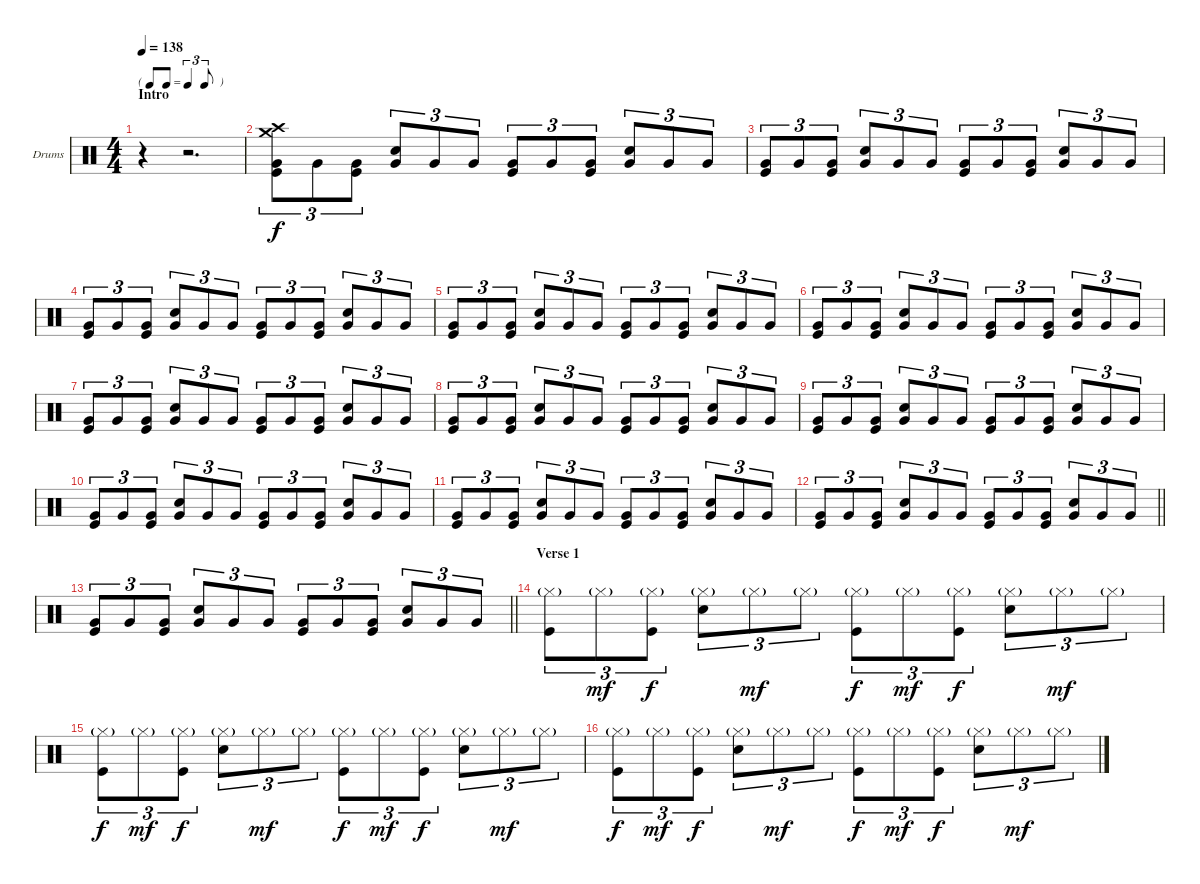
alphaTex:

\bracketExtendMode groupsimilarinstruments
\firstSystemTrackNameOrientation horizontal
\otherSystemsTrackNameOrientation horizontal
\track ("Drumkit" "Drums") {instrument percussion}
\staff {score}
\articulation defaults
\ts (4 4)
\beaming (8 2 2 2 2)
\tf triplet8th
\section ("" "Intro")
\tempo 138
\clef neutral
\ks c
r.4{dy f} r.2{d} |
("Crash medium (hit)" "Crash high (hit)" "Kick (hit)" "Very Low Tom (hit)").8{tu (3 2)} "Very Low Tom (hit)".8{tu (3 2)} ("Kick (hit)" "Very Low Tom (hit)").8{tu (3 2)} ("Snare (hit) 2" "Very Low Tom (hit)").8{tu (3 2)} "Very Low Tom (hit)".8{tu (3 2)} "Very Low Tom (hit)".8{tu (3 2)} ("Kick (hit)" "Very Low Tom (hit)").8{tu (3 2)} "Very Low Tom (hit)".8{tu (3 2)} ("Kick (hit)" "Very Low Tom (hit)").8{tu (3 2)} ("Snare (hit) 2" "Very Low Tom (hit)").8{tu (3 2)} "Very Low Tom (hit)".8{tu (3 2)} "Very Low Tom (hit)".8{tu (3 2)} |
("Kick (hit)" "Very Low Tom (hit)").8{tu (3 2)} "Very Low Tom (hit)".8{tu (3 2)} ("Kick (hit)" "Very Low Tom (hit)").8{tu (3 2)} ("Snare (hit) 2" "Very Low Tom (hit)").8{tu (3 2)} "Very Low Tom (hit)".8{tu (3 2)} "Very Low Tom (hit)".8{tu (3 2)} ("Kick (hit)" "Very Low Tom (hit)").8{tu (3 2)} "Very Low Tom (hit)".8{tu (3 2)} ("Kick (hit)" "Very Low Tom (hit)").8{tu (3 2)} ("Snare (hit) 2" "Very Low Tom (hit)").8{tu (3 2)} "Very Low Tom (hit)".8{tu (3 2)} "Very Low Tom (hit)".8{tu (3 2)} |
("Kick (hit)" "Very Low Tom (hit)").8{tu (3 2)} "Very Low Tom (hit)".8{tu (3 2)} ("Kick (hit)" "Very Low Tom (hit)").8{tu (3 2)} ("Snare (hit) 2" "Very Low Tom (hit)").8{tu (3 2)} "Very Low Tom (hit)".8{tu (3 2)} "Very Low Tom (hit)".8{tu (3 2)} ("Kick (hit)" "Very Low Tom (hit)").8{tu (3 2)} "Very Low Tom (hit)".8{tu (3 2)} ("Kick (hit)" "Very Low Tom (hit)").8{tu (3 2)} ("Snare (hit) 2" "Very Low Tom (hit)").8{tu (3 2)} "Very Low Tom (hit)".8{tu (3 2)} "Very Low Tom (hit)".8{tu (3 2)} |
("Kick (hit)" "Very Low Tom (hit)").8{tu (3 2)} "Very Low Tom (hit)".8{tu (3 2)} ("Kick (hit)" "Very Low Tom (hit)").8{tu (3 2)} ("Snare (hit) 2" "Very Low Tom (hit)").8{tu (3 2)} "Very Low Tom (hit)".8{tu (3 2)} "Very Low Tom (hit)".8{tu (3 2)} ("Kick (hit)" "Very Low Tom (hit)").8{tu (3 2)} "Very Low Tom (hit)".8{tu (3 2)} ("Kick (hit)" "Very Low Tom (hit)").8{tu (3 2)} ("Snare (hit) 2" "Very Low Tom (hit)").8{tu (3 2)} "Very Low Tom (hit)".8{tu (3 2)} "Very Low Tom (hit)".8{tu (3 2)} |
("Kick (hit)" "Very Low Tom (hit)").8{tu (3 2)} "Very Low Tom (hit)".8{tu (3 2)} ("Kick (hit)" "Very Low Tom (hit)").8{tu (3 2)} ("Snare (hit) 2" "Very Low Tom (hit)").8{tu (3 2)} "Very Low Tom (hit)".8{tu (3 2)} "Very Low Tom (hit)".8{tu (3 2)} ("Kick (hit)" "Very Low Tom (hit)").8{tu (3 2)} "Very Low Tom (hit)".8{tu (3 2)} ("Kick (hit)" "Very Low Tom (hit)").8{tu (3 2)} ("Snare (hit) 2" "Very Low Tom (hit)").8{tu (3 2)} "Very Low Tom (hit)".8{tu (3 2)} "Very Low Tom (hit)".8{tu (3 2)} |
("Kick (hit)" "Very Low Tom (hit)").8{tu (3 2)} "Very Low Tom (hit)".8{tu (3 2)} ("Kick (hit)" "Very Low Tom (hit)").8{tu (3 2)} ("Snare (hit) 2" "Very Low Tom (hit)").8{tu (3 2)} "Very Low Tom (hit)".8{tu (3 2)} "Very Low Tom (hit)".8{tu (3 2)} ("Kick (hit)" "Very Low Tom (hit)").8{tu (3 2)} "Very Low Tom (hit)".8{tu (3 2)} ("Kick (hit)" "Very Low Tom (hit)").8{tu (3 2)} ("Snare (hit) 2" "Very Low Tom (hit)").8{tu (3 2)} "Very Low Tom (hit)".8{tu (3 2)} "Very Low Tom (hit)".8{tu (3 2)} |
("Kick (hit)" "Very Low Tom (hit)").8{tu (3 2)} "Very Low Tom (hit)".8{tu (3 2)} ("Kick (hit)" "Very Low Tom (hit)").8{tu (3 2)} ("Snare (hit) 2" "Very Low Tom (hit)").8{tu (3 2)} "Very Low Tom (hit)".8{tu (3 2)} "Very Low Tom (hit)".8{tu (3 2)} ("Kick (hit)" "Very Low Tom (hit)").8{tu (3 2)} "Very Low Tom (hit)".8{tu (3 2)} ("Kick (hit)" "Very Low Tom (hit)").8{tu (3 2)} ("Snare (hit) 2" "Very Low Tom (hit)").8{tu (3 2)} "Very Low Tom (hit)".8{tu (3 2)} "Very Low Tom (hit)".8{tu (3 2)} |
("Kick (hit)" "Very Low Tom (hit)").8{tu (3 2)} "Very Low Tom (hit)".8{tu (3 2)} ("Kick (hit)" "Very Low Tom (hit)").8{tu (3 2)} ("Snare (hit) 2" "Very Low Tom (hit)").8{tu (3 2)} "Very Low Tom (hit)".8{tu (3 2)} "Very Low Tom (hit)".8{tu (3 2)} ("Kick (hit)" "Very Low Tom (hit)").8{tu (3 2)} "Very Low Tom (hit)".8{tu (3 2)} ("Kick (hit)" "Very Low Tom (hit)").8{tu (3 2)} ("Snare (hit) 2" "Very Low Tom (hit)").8{tu (3 2)} "Very Low Tom (hit)".8{tu (3 2)} "Very Low Tom (hit)".8{tu (3 2)} |
("Kick (hit)" "Very Low Tom (hit)").8{tu (3 2)} "Very Low Tom (hit)".8{tu (3 2)} ("Kick (hit)" "Very Low Tom (hit)").8{tu (3 2)} ("Snare (hit) 2" "Very Low Tom (hit)").8{tu (3 2)} "Very Low Tom (hit)".8{tu (3 2)} "Very Low Tom (hit)".8{tu (3 2)} ("Kick (hit)" "Very Low Tom (hit)").8{tu (3 2)} "Very Low Tom (hit)".8{tu (3 2)} ("Kick (hit)" "Very Low Tom (hit)").8{tu (3 2)} ("Snare (hit) 2" "Very Low Tom (hit)").8{tu (3 2)} "Very Low Tom (hit)".8{tu (3 2)} "Very Low Tom (hit)".8{tu (3 2)} |
("Kick (hit)" "Very Low Tom (hit)").8{tu (3 2)} "Very Low Tom (hit)".8{tu (3 2)} ("Kick (hit)" "Very Low Tom (hit)").8{tu (3 2)} ("Snare (hit) 2" "Very Low Tom (hit)").8{tu (3 2)} "Very Low Tom (hit)".8{tu (3 2)} "Very Low Tom (hit)".8{tu (3 2)} ("Kick (hit)" "Very Low Tom (hit)").8{tu (3 2)} "Very Low Tom (hit)".8{tu (3 2)} ("Kick (hit)" "Very Low Tom (hit)").8{tu (3 2)} ("Snare (hit) 2" "Very Low Tom (hit)").8{tu (3 2)} "Very Low Tom (hit)".8{tu (3 2)} "Very Low Tom (hit)".8{tu (3 2)} |
\barLineRight lightlight
("Kick (hit)" "Very Low Tom (hit)").8{tu (3 2)} "Very Low Tom (hit)".8{tu (3 2)} ("Kick (hit)" "Very Low Tom (hit)").8{tu (3 2)} ("Snare (hit) 2" "Very Low Tom (hit)").8{tu (3 2)} "Very Low Tom (hit)".8{tu (3 2)} "Very Low Tom (hit)".8{tu (3 2)} ("Kick (hit)" "Very Low Tom (hit)").8{tu (3 2)} "Very Low Tom (hit)".8{tu (3 2)} ("Kick (hit)" "Very Low Tom (hit)").8{tu (3 2)} ("Snare (hit) 2" "Very Low Tom (hit)").8{tu (3 2)} "Very Low Tom (hit)".8{tu (3 2)} "Very Low Tom (hit)".8{tu (3 2)} |
\barLineRight lightlight
("Kick (hit)" "Very Low Tom (hit)").8{tu (3 2)} "Very Low Tom (hit)".8{tu (3 2)} ("Kick (hit)" "Very Low Tom (hit)").8{tu (3 2)} ("Snare (hit) 2" "Very Low Tom (hit)").8{tu (3 2)} "Very Low Tom (hit)".8{tu (3 2)} "Very Low Tom (hit)".8{tu (3 2)} ("Kick (hit)" "Very Low Tom (hit)").8{tu (3 2)} "Very Low Tom (hit)".8{tu (3 2)} ("Kick (hit)" "Very Low Tom (hit)").8{tu (3 2)} ("Snare (hit) 2" "Very Low Tom (hit)").8{tu (3 2)} "Very Low Tom (hit)".8{tu (3 2)} "Very Low Tom (hit)".8{tu (3 2)} |
\section ("" "Verse 1")
("Hi-Hat (closed)"{g} "Kick (hit)").8{tu (3 2)} "Hi-Hat (closed)"{g}.8{tu (3 2) dy mf} ("Hi-Hat (closed)"{g} "Kick (hit)").8{tu (3 2) dy f} ("Hi-Hat (closed)"{g} "Snare (hit) 2").8{tu (3 2)} "Hi-Hat (closed)"{g}.8{tu (3 2) dy mf} "Hi-Hat (closed)"{g}.8{tu (3 2)} ("Hi-Hat (closed)"{g} "Kick (hit)").8{tu (3 2) dy f} "Hi-Hat (closed)"{g}.8{tu (3 2) dy mf} ("Hi-Hat (closed)"{g} "Kick (hit)").8{tu (3 2) dy f} ("Hi-Hat (closed)"{g} "Snare (hit) 2").8{tu (3 2)} "Hi-Hat (closed)"{g}.8{tu (3 2) dy mf} "Hi-Hat (closed)"{g}.8{tu (3 2)} |
("Hi-Hat (closed)"{g} "Kick (hit)").8{tu (3 2) dy f} "Hi-Hat (closed)"{g}.8{tu (3 2) dy mf} ("Hi-Hat (closed)"{g} "Kick (hit)").8{tu (3 2) dy f} ("Hi-Hat (closed)"{g} "Snare (hit) 2").8{tu (3 2)} "Hi-Hat (closed)"{g}.8{tu (3 2) dy mf} "Hi-Hat (closed)"{g}.8{tu (3 2)} ("Hi-Hat (closed)"{g} "Kick (hit)").8{tu (3 2) dy f} "Hi-Hat (closed)"{g}.8{tu (3 2) dy mf} ("Hi-Hat (closed)"{g} "Kick (hit)").8{tu (3 2) dy f} ("Hi-Hat (closed)"{g} "Snare (hit) 2").8{tu (3 2)} "Hi-Hat (closed)"{g}.8{tu (3 2) dy mf} "Hi-Hat (closed)"{g}.8{tu (3 2)} |
("Hi-Hat (closed)"{g} "Kick (hit)").8{tu (3 2) dy f} "Hi-Hat (closed)"{g}.8{tu (3 2) dy mf} ("Hi-Hat (closed)"{g} "Kick (hit)").8{tu (3 2) dy f} ("Hi-Hat (closed)"{g} "Snare (hit) 2").8{tu (3 2)} "Hi-Hat (closed)"{g}.8{tu (3 2) dy mf} "Hi-Hat (closed)"{g}.8{tu (3 2)} ("Hi-Hat (closed)"{g} "Kick (hit)").8{tu (3 2) dy f} "Hi-Hat (closed)"{g}.8{tu (3 2) dy mf} ("Hi-Hat (closed)"{g} "Kick (hit)").8{tu (3 2) dy f} ("Hi-Hat (closed)"{g} "Snare (hit) 2").8{tu (3 2)} "Hi-Hat (closed)"{g}.8{tu (3 2) dy mf} "Hi-Hat (closed)"{g}.8{tu (3 2)}
